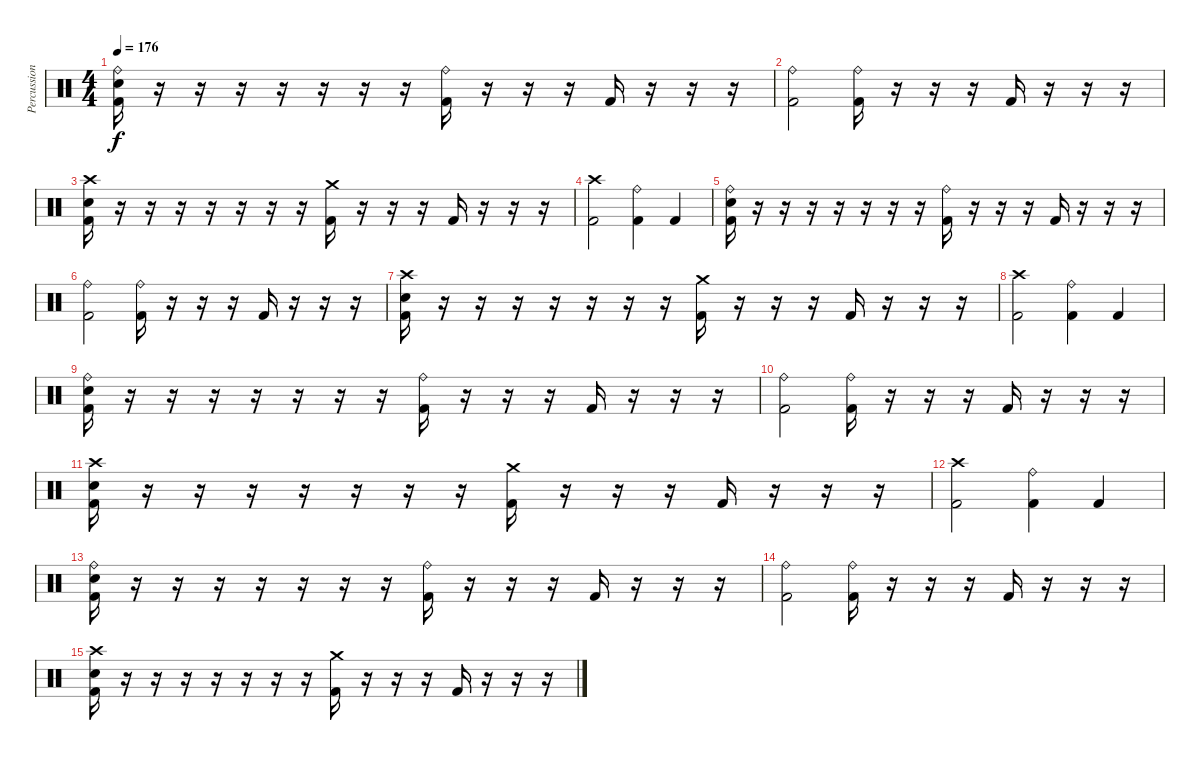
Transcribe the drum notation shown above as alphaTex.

\track ("Percussion" "Percussion") {instrument percussion}
\staff {score}
\articulation defaults
\ts (4 4)
\tempo 176
\clef neutral
\ks c
("Ride (bell)" "Electric Snare (hit)" "Kick (hit) 2").16{dy f} r.16 r.16 r.16 r.16 r.16 r.16 r.16 ("Ride (bell)" "Kick (hit) 2").16 r.16 r.16 r.16 "Kick (hit) 2".16 r.16 r.16 r.16 |
("Ride (bell)" "Kick (hit) 2").2 ("Ride (bell)" "Kick (hit) 2").16 r.16 r.16 r.16 "Kick (hit) 2".16 r.16 r.16 r.16 |
("Crash high (hit)" "Electric Snare (hit)" "Kick (hit) 2").16 r.16 r.16 r.16 r.16 r.16 r.16 r.16 ("Crash medium (hit)" "Kick (hit) 2").16 r.16 r.16 r.16 "Kick (hit) 2".16 r.16 r.16 r.16 |
("Crash high (hit)" "Kick (hit) 2").2 ("Ride (bell)" "Kick (hit) 2").4 "Kick (hit) 2".4 |
("Ride (bell)" "Electric Snare (hit)" "Kick (hit) 2").16 r.16 r.16 r.16 r.16 r.16 r.16 r.16 ("Ride (bell)" "Kick (hit) 2").16 r.16 r.16 r.16 "Kick (hit) 2".16 r.16 r.16 r.16 |
("Ride (bell)" "Kick (hit) 2").2 ("Ride (bell)" "Kick (hit) 2").16 r.16 r.16 r.16 "Kick (hit) 2".16 r.16 r.16 r.16 |
("Crash high (hit)" "Electric Snare (hit)" "Kick (hit) 2").16 r.16 r.16 r.16 r.16 r.16 r.16 r.16 ("Crash medium (hit)" "Kick (hit) 2").16 r.16 r.16 r.16 "Kick (hit) 2".16 r.16 r.16 r.16 |
("Crash high (hit)" "Kick (hit) 2").2 ("Ride (bell)" "Kick (hit) 2").4 "Kick (hit) 2".4 |
("Ride (bell)" "Electric Snare (hit)" "Kick (hit) 2").16 r.16 r.16 r.16 r.16 r.16 r.16 r.16 ("Ride (bell)" "Kick (hit) 2").16 r.16 r.16 r.16 "Kick (hit) 2".16 r.16 r.16 r.16 |
("Ride (bell)" "Kick (hit) 2").2 ("Ride (bell)" "Kick (hit) 2").16 r.16 r.16 r.16 "Kick (hit) 2".16 r.16 r.16 r.16 |
("Crash high (hit)" "Electric Snare (hit)" "Kick (hit) 2").16 r.16 r.16 r.16 r.16 r.16 r.16 r.16 ("Crash medium (hit)" "Kick (hit) 2").16 r.16 r.16 r.16 "Kick (hit) 2".16 r.16 r.16 r.16 |
("Crash high (hit)" "Kick (hit) 2").2 ("Ride (bell)" "Kick (hit) 2").4 "Kick (hit) 2".4 |
("Ride (bell)" "Electric Snare (hit)" "Kick (hit) 2").16 r.16 r.16 r.16 r.16 r.16 r.16 r.16 ("Ride (bell)" "Kick (hit) 2").16 r.16 r.16 r.16 "Kick (hit) 2".16 r.16 r.16 r.16 |
("Ride (bell)" "Kick (hit) 2").2 ("Ride (bell)" "Kick (hit) 2").16 r.16 r.16 r.16 "Kick (hit) 2".16 r.16 r.16 r.16 |
("Crash high (hit)" "Electric Snare (hit)" "Kick (hit) 2").16 r.16 r.16 r.16 r.16 r.16 r.16 r.16 ("Crash medium (hit)" "Kick (hit) 2").16 r.16 r.16 r.16 "Kick (hit) 2".16 r.16 r.16 r.16
